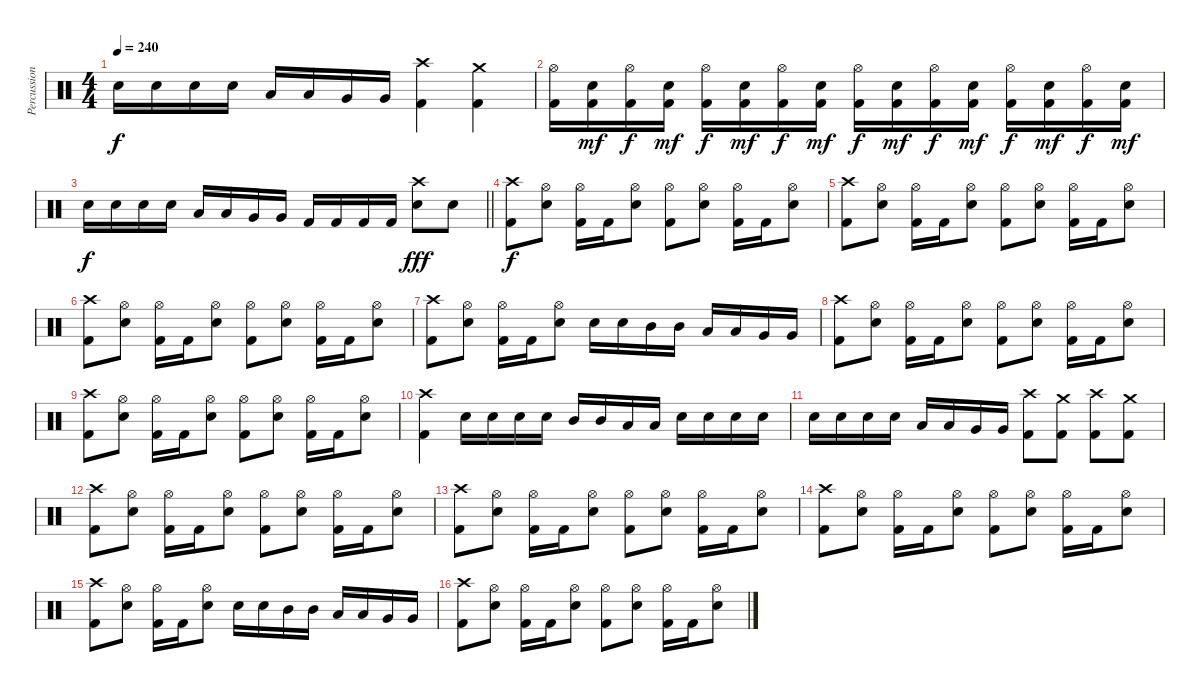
\track ("Percussion" "Percussion") {instrument percussion}
\staff {score}
\articulation defaults
\ts (4 4)
\tempo 240
\clef neutral
\ks c "Snare (hit) 2".16{dy f} "Snare (hit) 2".16 "Snare (hit) 2".16 "Snare (hit) 2".16 "Low Tom (hit)".16 "Low Tom (hit)".16 "Very Low Tom (hit)".16 "Very Low Tom (hit)".16
("Crash high (hit)" "Kick (hit) 2").4 ("Crash medium (hit)" "Kick (hit) 2").4 |
("Hi-Hat (open)" "Kick (hit) 2").16 ("Snare (hit) 2" "Kick (hit) 2").16{dy mf} ("Hi-Hat (open)" "Kick (hit) 2").16{dy f} ("Snare (hit) 2" "Kick (hit) 2").16{dy mf} ("Hi-Hat (open)" "Kick (hit) 2").16{dy f} ("Snare (hit) 2" "Kick (hit) 2").16{dy mf} ("Hi-Hat (open)" "Kick (hit) 2").16{dy f} ("Snare (hit) 2" "Kick (hit) 2").16{dy mf} ("Hi-Hat (open)" "Kick (hit) 2").16{dy f} ("Snare (hit) 2" "Kick (hit) 2").16{dy mf} ("Hi-Hat (open)" "Kick (hit) 2").16{dy f} ("Snare (hit) 2" "Kick (hit) 2").16{dy mf} ("Hi-Hat (open)" "Kick (hit) 2").16{dy f} ("Snare (hit) 2" "Kick (hit) 2").16{dy mf} ("Hi-Hat (open)" "Kick (hit) 2").16{dy f} ("Snare (hit) 2" "Kick (hit) 2").16{dy mf} |
\barLineRight lightlight "Snare (hit) 2".16{dy f} "Snare (hit) 2".16 "Snare (hit) 2".16 "Snare (hit) 2".16 "Low Tom (hit)".16 "Low Tom (hit)".16 "Very Low Tom (hit)".16 "Very Low Tom (hit)".16 "Kick (hit) 2".16 "Kick (hit) 2".16 "Kick (hit) 2".16 "Kick (hit) 2".16
("Crash high (hit)" "Snare (hit) 2").8{dy fff} "Snare (hit) 2".8 |
("Crash high (hit)" "Kick (hit) 2").8{dy f} ("Hi-Hat (open)" "Snare (hit) 2").8 ("Hi-Hat (open)" "Kick (hit) 2").16 "Kick (hit) 2".16 ("Hi-Hat (open)" "Snare (hit) 2").8 ("Hi-Hat (open)" "Kick (hit) 2").8 ("Hi-Hat (open)" "Snare (hit) 2").8 ("Hi-Hat (open)" "Kick (hit) 2").16 "Kick (hit) 2".16 ("Hi-Hat (open)" "Snare (hit) 2").8 |
("Crash high (hit)" "Kick (hit) 2").8 ("Hi-Hat (open)" "Snare (hit) 2").8 ("Hi-Hat (open)" "Kick (hit) 2").16 "Kick (hit) 2".16 ("Hi-Hat (open)" "Snare (hit) 2").8 ("Hi-Hat (open)" "Kick (hit) 2").8 ("Hi-Hat (open)" "Snare (hit) 2").8 ("Hi-Hat (open)" "Kick (hit) 2").16 "Kick (hit) 2".16 ("Hi-Hat (open)" "Snare (hit) 2").8 |
("Crash high (hit)" "Kick (hit) 2").8 ("Hi-Hat (open)" "Snare (hit) 2").8 ("Hi-Hat (open)" "Kick (hit) 2").16 "Kick (hit) 2".16 ("Hi-Hat (open)" "Snare (hit) 2").8 ("Hi-Hat (open)" "Kick (hit) 2").8 ("Hi-Hat (open)" "Snare (hit) 2").8 ("Hi-Hat (open)" "Kick (hit) 2").16 "Kick (hit) 2".16 ("Hi-Hat (open)" "Snare (hit) 2").8 |
("Crash high (hit)" "Kick (hit) 2").8 ("Hi-Hat (open)" "Snare (hit) 2").8 ("Hi-Hat (open)" "Kick (hit) 2").16 "Kick (hit) 2".16 ("Hi-Hat (open)" "Snare (hit) 2").8 "Snare (hit) 2".16 "Snare (hit) 2".16 "Mid Tom (hit)".16 "Mid Tom (hit)".16 "Low Tom (hit)".16 "Low Tom (hit)".16 "Very Low Tom (hit)".16 "Very Low Tom (hit)".16 |
("Crash high (hit)" "Kick (hit) 2").8 ("Hi-Hat (open)" "Snare (hit) 2").8 ("Hi-Hat (open)" "Kick (hit) 2").16 "Kick (hit) 2".16 ("Hi-Hat (open)" "Snare (hit) 2").8 ("Hi-Hat (open)" "Kick (hit) 2").8 ("Hi-Hat (open)" "Snare (hit) 2").8 ("Hi-Hat (open)" "Kick (hit) 2").16 "Kick (hit) 2".16 ("Hi-Hat (open)" "Snare (hit) 2").8 |
("Crash high (hit)" "Kick (hit) 2").8 ("Hi-Hat (open)" "Snare (hit) 2").8 ("Hi-Hat (open)" "Kick (hit) 2").16 "Kick (hit) 2".16 ("Hi-Hat (open)" "Snare (hit) 2").8 ("Hi-Hat (open)" "Kick (hit) 2").8 ("Hi-Hat (open)" "Snare (hit) 2").8 ("Hi-Hat (open)" "Kick (hit) 2").16 "Kick (hit) 2".16 ("Hi-Hat (open)" "Snare (hit) 2").8 |
("Crash high (hit)" "Kick (hit) 2").4 "Snare (hit) 2".16 "Snare (hit) 2".16 "Snare (hit) 2".16 "Snare (hit) 2".16 "Mid Tom (hit)".16 "Mid Tom (hit)".16 "Low Tom (hit)".16 "Low Tom (hit)".16 "Snare (hit) 2".16 "Snare (hit) 2".16 "Snare (hit) 2".16 "Snare (hit) 2".16 |
"Snare (hit) 2".16 "Snare (hit) 2".16 "Snare (hit) 2".16 "Snare (hit) 2".16 "Low Tom (hit)".16 "Low Tom (hit)".16 "Very Low Tom (hit)".16 "Very Low Tom (hit)".16 ("Crash high (hit)" "Kick (hit) 2").8 ("Crash medium (hit)" "Kick (hit) 2").8 ("Crash high (hit)" "Kick (hit) 2").8 ("Crash medium (hit)" "Kick (hit) 2").8 |
("Crash high (hit)" "Kick (hit) 2").8 ("Hi-Hat (open)" "Snare (hit) 2").8 ("Hi-Hat (open)" "Kick (hit) 2").16 "Kick (hit) 2".16 ("Hi-Hat (open)" "Snare (hit) 2").8 ("Hi-Hat (open)" "Kick (hit) 2").8 ("Hi-Hat (open)" "Snare (hit) 2").8 ("Hi-Hat (open)" "Kick (hit) 2").16 "Kick (hit) 2".16 ("Hi-Hat (open)" "Snare (hit) 2").8 |
("Crash high (hit)" "Kick (hit) 2").8 ("Hi-Hat (open)" "Snare (hit) 2").8 ("Hi-Hat (open)" "Kick (hit) 2").16 "Kick (hit) 2".16 ("Hi-Hat (open)" "Snare (hit) 2").8 ("Hi-Hat (open)" "Kick (hit) 2").8 ("Hi-Hat (open)" "Snare (hit) 2").8 ("Hi-Hat (open)" "Kick (hit) 2").16 "Kick (hit) 2".16 ("Hi-Hat (open)" "Snare (hit) 2").8 |
("Crash high (hit)" "Kick (hit) 2").8 ("Hi-Hat (open)" "Snare (hit) 2").8 ("Hi-Hat (open)" "Kick (hit) 2").16 "Kick (hit) 2".16 ("Hi-Hat (open)" "Snare (hit) 2").8 ("Hi-Hat (open)" "Kick (hit) 2").8 ("Hi-Hat (open)" "Snare (hit) 2").8 ("Hi-Hat (open)" "Kick (hit) 2").16 "Kick (hit) 2".16 ("Hi-Hat (open)" "Snare (hit) 2").8 |
("Crash high (hit)" "Kick (hit) 2").8 ("Hi-Hat (open)" "Snare (hit) 2").8 ("Hi-Hat (open)" "Kick (hit) 2").16 "Kick (hit) 2".16 ("Hi-Hat (open)" "Snare (hit) 2").8 "Snare (hit) 2".16 "Snare (hit) 2".16 "Mid Tom (hit)".16 "Mid Tom (hit)".16 "Low Tom (hit)".16 "Low Tom (hit)".16 "Very Low Tom (hit)".16 "Very Low Tom (hit)".16 |
("Crash high (hit)" "Kick (hit) 2").8 ("Hi-Hat (open)" "Snare (hit) 2").8 ("Hi-Hat (open)" "Kick (hit) 2").16 "Kick (hit) 2".16 ("Hi-Hat (open)" "Snare (hit) 2").8 ("Hi-Hat (open)" "Kick (hit) 2").8 ("Hi-Hat (open)" "Snare (hit) 2").8 ("Hi-Hat (open)" "Kick (hit) 2").16 "Kick (hit) 2".16 ("Hi-Hat (open)" "Snare (hit) 2").8
